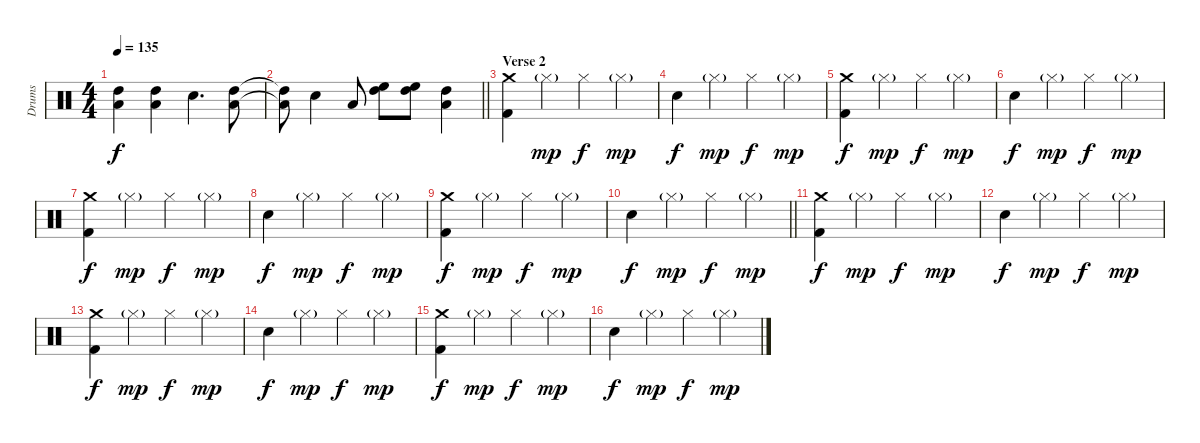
\track ("Drums" "Drums") {instrument percussion}
\staff {score}
\articulation defaults
\ts (4 4)
\tempo 135
\clef neutral
\ks c
("High Tom (hit)" "Low Tom (hit)").4{dy f} ("High Tom (hit)" "Low Tom (hit)").4 "Electric Snare (hit)".4{d} ("High Tom (hit)" "Low Tom (hit)").8 |
\barLineRight lightlight
("High Tom (hit)"{t} "Low Tom (hit)"{t}).8 "Electric Snare (hit)".4 "Low Tom (hit)".8 ("High Floor Tom (hit)" "High Tom (hit)").8 ("High Floor Tom (hit)" "High Tom (hit)").8 ("High Tom (hit)" "Low Tom (hit)").4 |
\section ("" "Verse 2")
("Crash medium (hit)" "Kick (hit) 2").4 "Hi-Hat (closed)"{g}.4{dy mp} "Hi-Hat (closed)".4{dy f} "Hi-Hat (closed)"{g}.4{dy mp} |
"Electric Snare (hit)".4{dy f} "Hi-Hat (closed)"{g}.4{dy mp} "Hi-Hat (closed)".4{dy f} "Hi-Hat (closed)"{g}.4{dy mp} |
("Crash medium (hit)" "Kick (hit) 2").4{dy f} "Hi-Hat (closed)"{g}.4{dy mp} "Hi-Hat (closed)".4{dy f} "Hi-Hat (closed)"{g}.4{dy mp} |
"Electric Snare (hit)".4{dy f} "Hi-Hat (closed)"{g}.4{dy mp} "Hi-Hat (closed)".4{dy f} "Hi-Hat (closed)"{g}.4{dy mp} |
("Crash medium (hit)" "Kick (hit) 2").4{dy f} "Hi-Hat (closed)"{g}.4{dy mp} "Hi-Hat (closed)".4{dy f} "Hi-Hat (closed)"{g}.4{dy mp} |
"Electric Snare (hit)".4{dy f} "Hi-Hat (closed)"{g}.4{dy mp} "Hi-Hat (closed)".4{dy f} "Hi-Hat (closed)"{g}.4{dy mp} |
("Crash medium (hit)" "Kick (hit) 2").4{dy f} "Hi-Hat (closed)"{g}.4{dy mp} "Hi-Hat (closed)".4{dy f} "Hi-Hat (closed)"{g}.4{dy mp} |
\barLineRight lightlight "Electric Snare (hit)".4{dy f} "Hi-Hat (closed)"{g}.4{dy mp} "Hi-Hat (closed)".4{dy f} "Hi-Hat (closed)"{g}.4{dy mp}
|
\section ("" "")
("Crash medium (hit)" "Kick (hit) 2").4{dy f} "Hi-Hat (closed)"{g}.4{dy mp} "Hi-Hat (closed)".4{dy f} "Hi-Hat (closed)"{g}.4{dy mp} |
"Electric Snare (hit)".4{dy f} "Hi-Hat (closed)"{g}.4{dy mp} "Hi-Hat (closed)".4{dy f} "Hi-Hat (closed)"{g}.4{dy mp} |
("Crash medium (hit)" "Kick (hit) 2").4{dy f} "Hi-Hat (closed)"{g}.4{dy mp} "Hi-Hat (closed)".4{dy f} "Hi-Hat (closed)"{g}.4{dy mp} |
"Electric Snare (hit)".4{dy f} "Hi-Hat (closed)"{g}.4{dy mp} "Hi-Hat (closed)".4{dy f} "Hi-Hat (closed)"{g}.4{dy mp} |
("Crash medium (hit)" "Kick (hit) 2").4{dy f} "Hi-Hat (closed)"{g}.4{dy mp} "Hi-Hat (closed)".4{dy f} "Hi-Hat (closed)"{g}.4{dy mp} |
"Electric Snare (hit)".4{dy f} "Hi-Hat (closed)"{g}.4{dy mp} "Hi-Hat (closed)".4{dy f} "Hi-Hat (closed)"{g}.4{dy mp}
